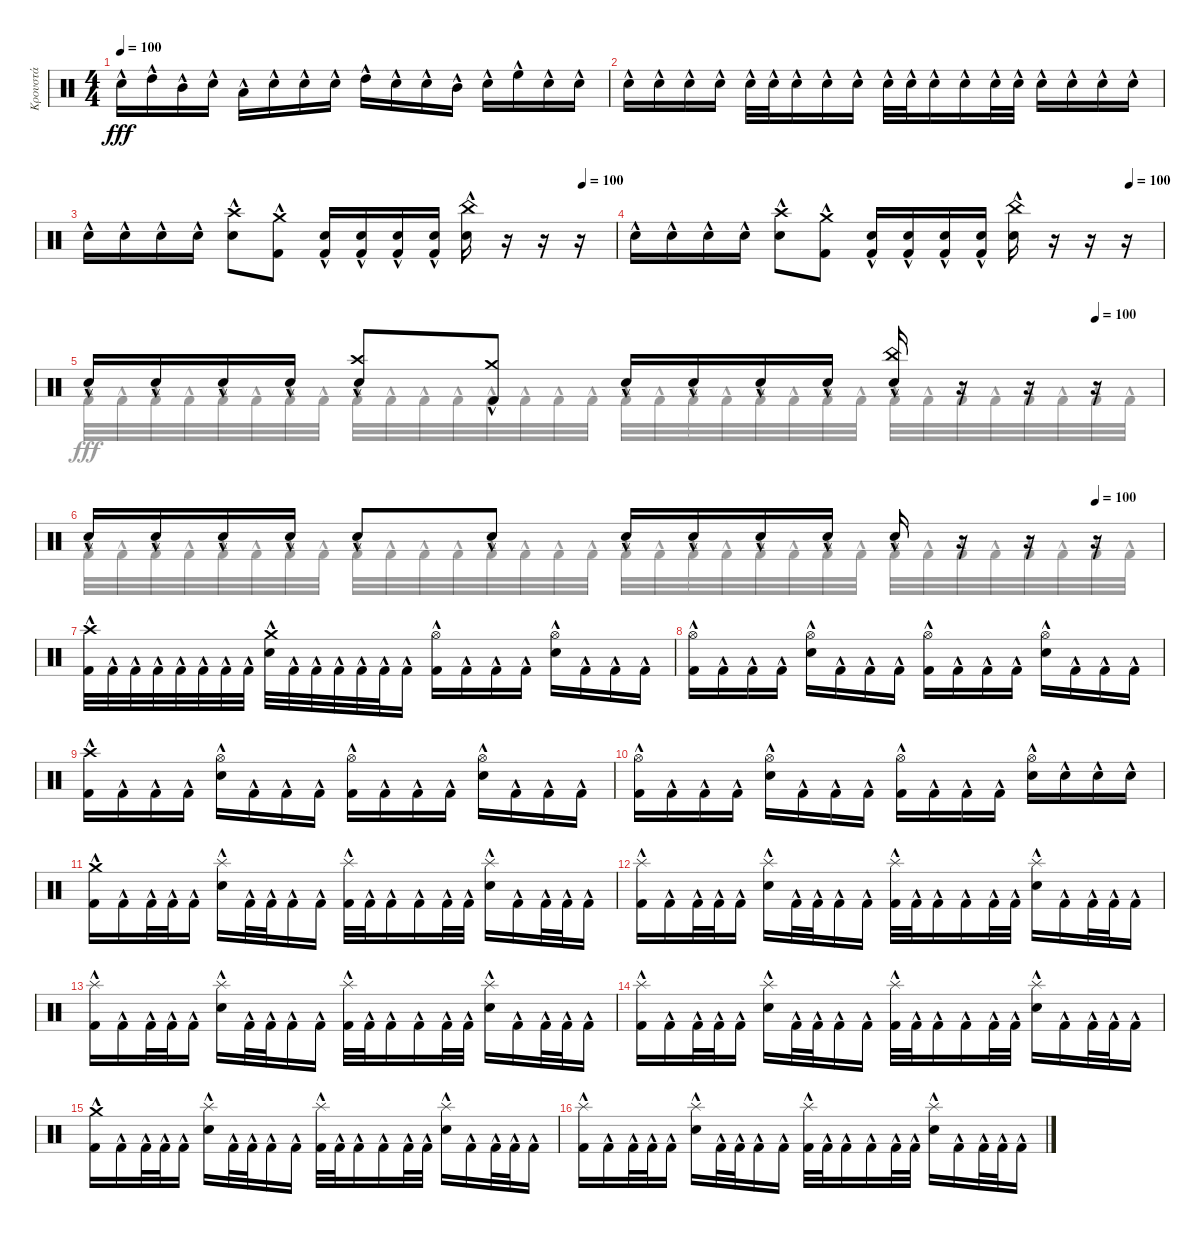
\track ("Κρουστά" "Κρουστά") {instrument percussion}
\staff {score}
\articulation defaults
\voice
\ts (4 4)
\tempo 100
\clef neutral
\ks c "Electric Snare (hit)"{hac}.16{dy fff} "High Tom (hit)"{hac}.16 "Mid Tom (hit)"{hac}.16 "Electric Snare (hit)"{hac}.16 "Low Tom (hit)"{hac}.16 "Electric Snare (hit)"{hac}.16 "Electric Snare (hit)"{hac}.16 "Electric Snare (hit)"{hac}.16 "High Tom (hit)"{hac}.16 "Electric Snare (hit)"{hac}.16 "Electric Snare (hit)"{hac}.16 "Mid Tom (hit)"{hac}.16 "Electric Snare (hit)"{hac}.16 "High Floor Tom (hit)"{hac}.16 "Electric Snare (hit)"{hac}.16 "Electric Snare (hit)"{hac}.16
|
"Electric Snare (hit)"{hac}.16 "Electric Snare (hit)"{hac}.16 "Electric Snare (hit)"{hac}.16 "Electric Snare (hit)"{hac}.16 "Electric Snare (hit)"{hac}.32 "Electric Snare (hit)"{hac}.32 "Electric Snare (hit)"{hac}.16 "Electric Snare (hit)"{hac}.16 "Electric Snare (hit)"{hac}.16 "Electric Snare (hit)"{hac}.32 "Electric Snare (hit)"{hac}.32 "Electric Snare (hit)"{hac}.16 "Electric Snare (hit)"{hac}.16 "Electric Snare (hit)"{hac}.32 "Electric Snare (hit)"{hac}.32 "Electric Snare (hit)"{hac}.16 "Electric Snare (hit)"{hac}.16 "Electric Snare (hit)"{hac}.16 "Electric Snare (hit)"{hac}.16 |
\tempo (100 0.9375)
"Electric Snare (hit)"{hac}.16 "Electric Snare (hit)"{hac}.16 "Electric Snare (hit)"{hac}.16 "Electric Snare (hit)"{hac}.16 ("Crash high (hit)" "Electric Snare (hit)"{hac}).8 ("Crash medium (hit)" "Kick (hit) 2"{hac}).8 ("Kick (hit) 2"{hac} "Electric Snare (hit)"{hac}).16 ("Kick (hit) 2"{hac} "Electric Snare (hit)"{hac}).16 ("Kick (hit) 2"{hac} "Electric Snare (hit)"{hac}).16 ("Kick (hit) 2"{hac} "Electric Snare (hit)"{hac}).16 ("Electric Snare (hit)"{hac} "China (hit)").16 r.16 r.16 r.16 |
\tempo (100 0.9375)
"Electric Snare (hit)"{hac}.16 "Electric Snare (hit)"{hac}.16 "Electric Snare (hit)"{hac}.16 "Electric Snare (hit)"{hac}.16 ("Crash high (hit)" "Electric Snare (hit)"{hac}).8 ("Crash medium (hit)" "Kick (hit) 2"{hac}).8 ("Kick (hit) 2"{hac} "Electric Snare (hit)"{hac}).16 ("Kick (hit) 2"{hac} "Electric Snare (hit)"{hac}).16 ("Kick (hit) 2"{hac} "Electric Snare (hit)"{hac}).16 ("Kick (hit) 2"{hac} "Electric Snare (hit)"{hac}).16 ("Electric Snare (hit)"{hac} "China (hit)").16 r.16 r.16 r.16 |
\tempo (100 0.9375)
"Electric Snare (hit)"{hac}.16 "Electric Snare (hit)"{hac}.16 "Electric Snare (hit)"{hac}.16 "Electric Snare (hit)"{hac}.16 ("Crash high (hit)" "Electric Snare (hit)"{hac}).8 ("Crash medium (hit)" "Kick (hit) 2"{hac}).8 "Electric Snare (hit)"{hac}.16 "Electric Snare (hit)"{hac}.16 "Electric Snare (hit)"{hac}.16 "Electric Snare (hit)"{hac}.16 ("Electric Snare (hit)"{hac} "China (hit)").16 r.16 r.16 r.16 |
\tempo (100 0.9375)
"Electric Snare (hit)"{hac}.16 "Electric Snare (hit)"{hac}.16 "Electric Snare (hit)"{hac}.16 "Electric Snare (hit)"{hac}.16 "Electric Snare (hit)"{hac}.8 "Electric Snare (hit)"{hac}.8 "Electric Snare (hit)"{hac}.16 "Electric Snare (hit)"{hac}.16 "Electric Snare (hit)"{hac}.16 "Electric Snare (hit)"{hac}.16 "Electric Snare (hit)"{hac}.16 r.16 r.16 r.16 |
("Crash high (hit)" "Kick (hit) 2"{hac}).32 "Kick (hit) 2"{hac}.32 "Kick (hit) 2"{hac}.32 "Kick (hit) 2"{hac}.32 "Kick (hit) 2"{hac}.32 "Kick (hit) 2"{hac}.32 "Kick (hit) 2"{hac}.32 "Kick (hit) 2"{hac}.32 ("Crash medium (hit)" "Electric Snare (hit)"{hac}).32 "Kick (hit) 2"{hac}.32 "Kick (hit) 2"{hac}.32 "Kick (hit) 2"{hac}.32 "Kick (hit) 2"{hac}.32 "Kick (hit) 2"{hac}.32 "Kick (hit) 2"{hac}.16 ("Kick (hit) 2"{hac} "Hi-Hat (open)").16 "Kick (hit) 2"{hac}.16 "Kick (hit) 2"{hac}.16 "Kick (hit) 2"{hac}.16 ("Electric Snare (hit)"{hac} "Hi-Hat (open)").16 "Kick (hit) 2"{hac}.16 "Kick (hit) 2"{hac}.16 "Kick (hit) 2"{hac}.16 |
("Kick (hit) 2"{hac} "Hi-Hat (open)").16 "Kick (hit) 2"{hac}.16 "Kick (hit) 2"{hac}.16 "Kick (hit) 2"{hac}.16 ("Electric Snare (hit)"{hac} "Hi-Hat (open)").16 "Kick (hit) 2"{hac}.16 "Kick (hit) 2"{hac}.16 "Kick (hit) 2"{hac}.16 ("Kick (hit) 2"{hac} "Hi-Hat (open)").16 "Kick (hit) 2"{hac}.16 "Kick (hit) 2"{hac}.16 "Kick (hit) 2"{hac}.16 ("Electric Snare (hit)"{hac} "Hi-Hat (open)").16 "Kick (hit) 2"{hac}.16 "Kick (hit) 2"{hac}.16 "Kick (hit) 2"{hac}.16 |
("Kick (hit) 2"{hac} "Crash high (hit)").16 "Kick (hit) 2"{hac}.16 "Kick (hit) 2"{hac}.16 "Kick (hit) 2"{hac}.16 ("Electric Snare (hit)"{hac} "Hi-Hat (open)").16 "Kick (hit) 2"{hac}.16 "Kick (hit) 2"{hac}.16 "Kick (hit) 2"{hac}.16 ("Kick (hit) 2"{hac} "Hi-Hat (open)").16 "Kick (hit) 2"{hac}.16 "Kick (hit) 2"{hac}.16 "Kick (hit) 2"{hac}.16 ("Electric Snare (hit)"{hac} "Hi-Hat (open)").16 "Kick (hit) 2"{hac}.16 "Kick (hit) 2"{hac}.16 "Kick (hit) 2"{hac}.16 |
("Kick (hit) 2"{hac} "Hi-Hat (open)").16 "Kick (hit) 2"{hac}.16 "Kick (hit) 2"{hac}.16 "Kick (hit) 2"{hac}.16 ("Electric Snare (hit)"{hac} "Hi-Hat (open)").16 "Kick (hit) 2"{hac}.16 "Kick (hit) 2"{hac}.16 "Kick (hit) 2"{hac}.16 ("Kick (hit) 2"{hac} "Hi-Hat (open)").16 "Kick (hit) 2"{hac}.16 "Kick (hit) 2"{hac}.16 "Kick (hit) 2"{hac}.16 ("Electric Snare (hit)"{hac} "Hi-Hat (open)").16 "Electric Snare (hit)"{hac}.16 "Electric Snare (hit)"{hac}.16 "Electric Snare (hit)"{hac}.16 |
("Kick (hit) 2"{hac} "Crash medium (hit)").16 "Kick (hit) 2"{hac}.16 "Kick (hit) 2"{hac}.32 "Kick (hit) 2"{hac}.32 "Kick (hit) 2"{hac}.16 ("Electric Snare (hit)"{hac} "Splash (hit)").16 "Kick (hit) 2"{hac}.32 "Kick (hit) 2"{hac}.32 "Kick (hit) 2"{hac}.16 "Kick (hit) 2"{hac}.16 ("Kick (hit) 2"{hac} "Splash (hit)").32 "Kick (hit) 2"{hac}.32 "Kick (hit) 2"{hac}.16 "Kick (hit) 2"{hac}.16 "Kick (hit) 2"{hac}.32 "Kick (hit) 2"{hac}.32 ("Electric Snare (hit)"{hac} "Splash (hit)").16 "Kick (hit) 2"{hac}.16 "Kick (hit) 2"{hac}.32 "Kick (hit) 2"{hac}.32 "Kick (hit) 2"{hac}.16 |
("Kick (hit) 2"{hac} "Splash (hit)").16 "Kick (hit) 2"{hac}.16 "Kick (hit) 2"{hac}.32 "Kick (hit) 2"{hac}.32 "Kick (hit) 2"{hac}.16 ("Electric Snare (hit)"{hac} "Splash (hit)").16 "Kick (hit) 2"{hac}.32 "Kick (hit) 2"{hac}.32 "Kick (hit) 2"{hac}.16 "Kick (hit) 2"{hac}.16 ("Kick (hit) 2"{hac} "Splash (hit)").32 "Kick (hit) 2"{hac}.32 "Kick (hit) 2"{hac}.16 "Kick (hit) 2"{hac}.16 "Kick (hit) 2"{hac}.32 "Kick (hit) 2"{hac}.32 ("Electric Snare (hit)"{hac} "Splash (hit)").16 "Kick (hit) 2"{hac}.16 "Kick (hit) 2"{hac}.32 "Kick (hit) 2"{hac}.32 "Kick (hit) 2"{hac}.16 |
("Kick (hit) 2"{hac} "Splash (hit)").16 "Kick (hit) 2"{hac}.16 "Kick (hit) 2"{hac}.32 "Kick (hit) 2"{hac}.32 "Kick (hit) 2"{hac}.16 ("Electric Snare (hit)"{hac} "Splash (hit)").16 "Kick (hit) 2"{hac}.32 "Kick (hit) 2"{hac}.32 "Kick (hit) 2"{hac}.16 "Kick (hit) 2"{hac}.16 ("Kick (hit) 2"{hac} "Splash (hit)").32 "Kick (hit) 2"{hac}.32 "Kick (hit) 2"{hac}.16 "Kick (hit) 2"{hac}.16 "Kick (hit) 2"{hac}.32 "Kick (hit) 2"{hac}.32 ("Electric Snare (hit)"{hac} "Splash (hit)").16 "Kick (hit) 2"{hac}.16 "Kick (hit) 2"{hac}.32 "Kick (hit) 2"{hac}.32 "Kick (hit) 2"{hac}.16 |
("Kick (hit) 2"{hac} "Splash (hit)").16 "Kick (hit) 2"{hac}.16 "Kick (hit) 2"{hac}.32 "Kick (hit) 2"{hac}.32 "Kick (hit) 2"{hac}.16 ("Electric Snare (hit)"{hac} "Splash (hit)").16 "Kick (hit) 2"{hac}.32 "Kick (hit) 2"{hac}.32 "Kick (hit) 2"{hac}.16 "Kick (hit) 2"{hac}.16 ("Kick (hit) 2"{hac} "Splash (hit)").32 "Kick (hit) 2"{hac}.32 "Kick (hit) 2"{hac}.16 "Kick (hit) 2"{hac}.16 "Kick (hit) 2"{hac}.32 "Kick (hit) 2"{hac}.32 ("Electric Snare (hit)"{hac} "Splash (hit)").16 "Kick (hit) 2"{hac}.16 "Kick (hit) 2"{hac}.32 "Kick (hit) 2"{hac}.32 "Kick (hit) 2"{hac}.16 |
("Kick (hit) 2"{hac} "Crash medium (hit)").16{volume 7} "Kick (hit) 2"{hac}.16 "Kick (hit) 2"{hac}.32 "Kick (hit) 2"{hac}.32 "Kick (hit) 2"{hac}.16 ("Electric Snare (hit)"{hac} "Splash (hit)").16 "Kick (hit) 2"{hac}.32 "Kick (hit) 2"{hac}.32 "Kick (hit) 2"{hac}.16 "Kick (hit) 2"{hac}.16 ("Kick (hit) 2"{hac} "Splash (hit)").32 "Kick (hit) 2"{hac}.32 "Kick (hit) 2"{hac}.16 "Kick (hit) 2"{hac}.16 "Kick (hit) 2"{hac}.32 "Kick (hit) 2"{hac}.32 ("Electric Snare (hit)"{hac} "Splash (hit)").16 "Kick (hit) 2"{hac}.16 "Kick (hit) 2"{hac}.32 "Kick (hit) 2"{hac}.32 "Kick (hit) 2"{hac}.16 |
("Kick (hit) 2"{hac} "Splash (hit)").16 "Kick (hit) 2"{hac}.16 "Kick (hit) 2"{hac}.32 "Kick (hit) 2"{hac}.32 "Kick (hit) 2"{hac}.16 ("Electric Snare (hit)"{hac} "Splash (hit)").16 "Kick (hit) 2"{hac}.32 "Kick (hit) 2"{hac}.32 "Kick (hit) 2"{hac}.16 "Kick (hit) 2"{hac}.16 ("Kick (hit) 2"{hac} "Splash (hit)").32 "Kick (hit) 2"{hac}.32 "Kick (hit) 2"{hac}.16 "Kick (hit) 2"{hac}.16 "Kick (hit) 2"{hac}.32 "Kick (hit) 2"{hac}.32 ("Electric Snare (hit)"{hac} "Splash (hit)").16 "Kick (hit) 2"{hac}.16 "Kick (hit) 2"{hac}.32 "Kick (hit) 2"{hac}.32 "Kick (hit) 2"{hac}.16
\voice
\clef neutral
\ottava regular
\simile none
\ks c
|
|
|
|
"Kick (hit) 2"{hac}.32 "Kick (hit) 2"{hac}.32 "Kick (hit) 2"{hac}.32 "Kick (hit) 2"{hac}.32 "Kick (hit) 2"{hac}.32 "Kick (hit) 2"{hac}.32 "Kick (hit) 2"{hac}.32 "Kick (hit) 2"{hac}.32 "Kick (hit) 2"{hac}.32 "Kick (hit) 2"{hac}.32 "Kick (hit) 2"{hac}.32 "Kick (hit) 2"{hac}.32 "Kick (hit) 2"{hac}.32 "Kick (hit) 2"{hac}.32 "Kick (hit) 2"{hac}.32 "Kick (hit) 2"{hac}.32 "Kick (hit) 2"{hac}.32 "Kick (hit) 2"{hac}.32 "Kick (hit) 2"{hac}.32 "Kick (hit) 2"{hac}.32 "Kick (hit) 2"{hac}.32 "Kick (hit) 2"{hac}.32 "Kick (hit) 2"{hac}.32 "Kick (hit) 2"{hac}.32 "Kick (hit) 2"{hac}.32 "Kick (hit) 2"{hac}.32 "Kick (hit) 2"{hac}.32 "Kick (hit) 2"{hac}.32 "Kick (hit) 2"{hac}.32 "Kick (hit) 2"{hac}.32 "Kick (hit) 2"{hac}.32 "Kick (hit) 2"{hac}.32 |
"Kick (hit) 2"{hac}.32 "Kick (hit) 2"{hac}.32 "Kick (hit) 2"{hac}.32 "Kick (hit) 2"{hac}.32 "Kick (hit) 2"{hac}.32 "Kick (hit) 2"{hac}.32 "Kick (hit) 2"{hac}.32 "Kick (hit) 2"{hac}.32 "Kick (hit) 2"{hac}.32 "Kick (hit) 2"{hac}.32 "Kick (hit) 2"{hac}.32 "Kick (hit) 2"{hac}.32 "Kick (hit) 2"{hac}.32 "Kick (hit) 2"{hac}.32 "Kick (hit) 2"{hac}.32 "Kick (hit) 2"{hac}.32 "Kick (hit) 2"{hac}.32 "Kick (hit) 2"{hac}.32 "Kick (hit) 2"{hac}.32 "Kick (hit) 2"{hac}.32 "Kick (hit) 2"{hac}.32 "Kick (hit) 2"{hac}.32 "Kick (hit) 2"{hac}.32 "Kick (hit) 2"{hac}.32 "Kick (hit) 2"{hac}.32 "Kick (hit) 2"{hac}.32 "Kick (hit) 2"{hac}.32 "Kick (hit) 2"{hac}.32 "Kick (hit) 2"{hac}.32 "Kick (hit) 2"{hac}.32 "Kick (hit) 2"{hac}.32 "Kick (hit) 2"{hac}.32 |
|
|
|
|
|
|
|
|
|
